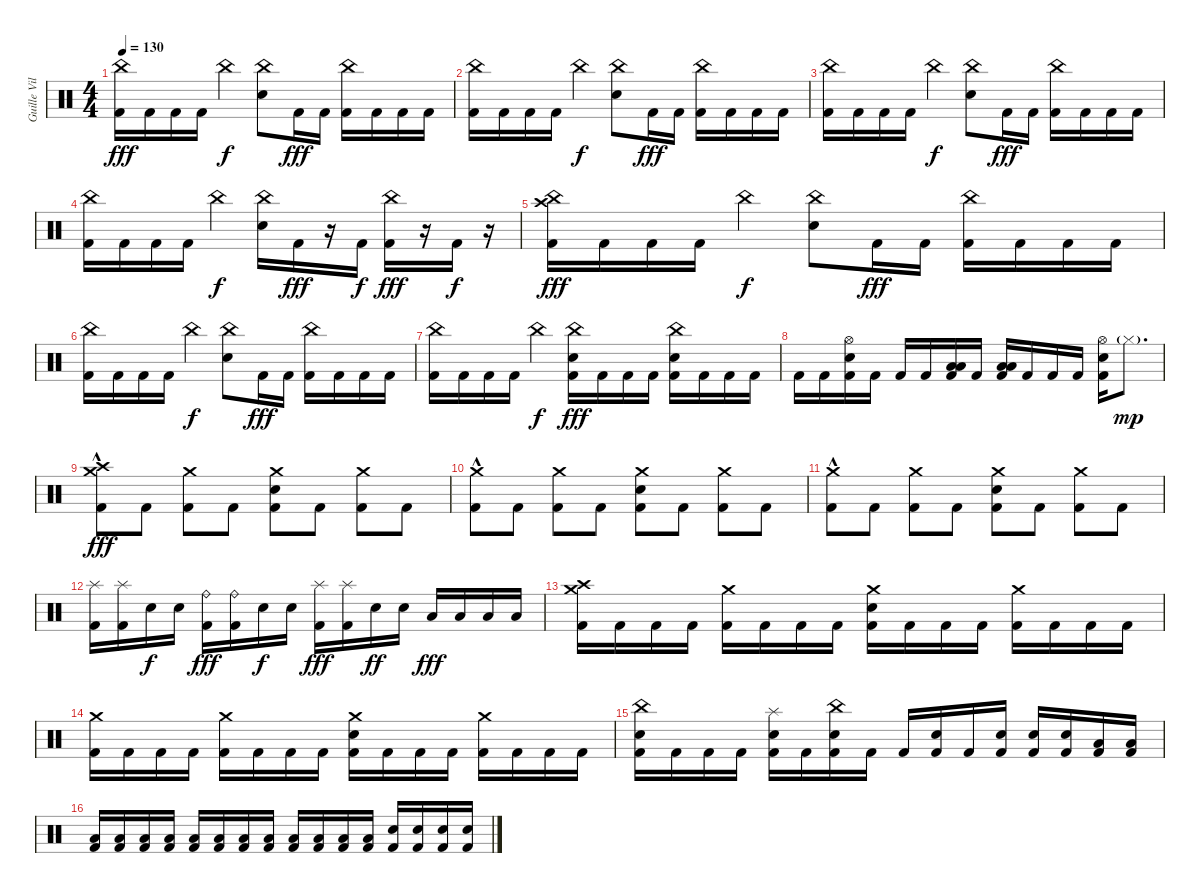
\track ("Guille Vila" "Guille Vil") {instrument percussion}
\staff {score}
\articulation defaults
\ts (4 4)
\tempo 130
\clef neutral
\ks c
("China (hit)" "Kick (hit) 2").16{dy fff} "Kick (hit) 2".16 "Kick (hit) 2".16 "Kick (hit) 2".16 "China (hit)".4{dy f} ("China (hit)" "Snare (hit) 2").8 "Kick (hit) 2".16{dy fff} "Kick (hit) 2".16 ("China (hit)" "Kick (hit) 2").16 "Kick (hit) 2".16 "Kick (hit) 2".16 "Kick (hit) 2".16 |
("China (hit)" "Kick (hit) 2").16 "Kick (hit) 2".16 "Kick (hit) 2".16 "Kick (hit) 2".16 "China (hit)".4{dy f} ("China (hit)" "Snare (hit) 2").8 "Kick (hit) 2".16{dy fff} "Kick (hit) 2".16 ("China (hit)" "Kick (hit) 2").16 "Kick (hit) 2".16 "Kick (hit) 2".16 "Kick (hit) 2".16 |
("China (hit)" "Kick (hit) 2").16 "Kick (hit) 2".16 "Kick (hit) 2".16 "Kick (hit) 2".16 "China (hit)".4{dy f} ("China (hit)" "Snare (hit) 2").8 "Kick (hit) 2".16{dy fff} "Kick (hit) 2".16 ("China (hit)" "Kick (hit) 2").16 "Kick (hit) 2".16 "Kick (hit) 2".16 "Kick (hit) 2".16 |
("China (hit)" "Kick (hit) 2").16 "Kick (hit) 2".16 "Kick (hit) 2".16 "Kick (hit) 2".16 "China (hit)".4{dy f} ("China (hit)" "Snare (hit) 2").16 "Kick (hit) 2".16{dy fff} r.16 "Kick (hit) 2".16{dy f} ("China (hit)" "Kick (hit) 2").16{dy fff} r.16 "Kick (hit) 2".16{dy f} r.16 |
("China (hit)" "Crash high (hit)" "Kick (hit) 2").16{dy fff} "Kick (hit) 2".16 "Kick (hit) 2".16 "Kick (hit) 2".16 "China (hit)".4{dy f} ("China (hit)" "Snare (hit) 2").8 "Kick (hit) 2".16{dy fff} "Kick (hit) 2".16 ("China (hit)" "Kick (hit) 2").16 "Kick (hit) 2".16 "Kick (hit) 2".16 "Kick (hit) 2".16 |
("China (hit)" "Kick (hit) 2").16 "Kick (hit) 2".16 "Kick (hit) 2".16 "Kick (hit) 2".16 "China (hit)".4{dy f} ("China (hit)" "Snare (hit) 2").8 "Kick (hit) 2".16{dy fff} "Kick (hit) 2".16 ("China (hit)" "Kick (hit) 2").16 "Kick (hit) 2".16 "Kick (hit) 2".16 "Kick (hit) 2".16 |
("China (hit)" "Kick (hit) 2").16 "Kick (hit) 2".16 "Kick (hit) 2".16 "Kick (hit) 2".16 "China (hit)".4{dy f} ("China (hit)" "Snare (hit) 2" "Kick (hit) 2").16{dy fff} "Kick (hit) 2".16 "Kick (hit) 2".16 "Kick (hit) 2".16 ("China (hit)" "Snare (hit) 2" "Kick (hit) 2").16 "Kick (hit) 2".16 "Kick (hit) 2".16 "Kick (hit) 2".16 |
"Kick (hit) 2".16 "Kick (hit) 2".16 ("Hi-Hat (open)" "Snare (hit) 2" "Kick (hit) 2").16 "Kick (hit) 2".16 "Kick (hit) 2".16 "Kick (hit) 2".16 ("Low Tom (hit)" "Low Floor Tom (hit)" "Kick (hit) 2").16 "Kick (hit) 2".16 ("Low Tom (hit)" "Low Floor Tom (hit)" "Kick (hit) 2").16 "Kick (hit) 2".16 "Kick (hit) 2".16 "Kick (hit) 2".16 ("Hi-Hat (open)" "Electric Snare (hit)" "Kick (hit) 2").16 "Hi-Hat (closed)"{g}.8{d dy mp} |
("Crash medium (hit)" "Crash high (hit)" "Kick (hit) 2"{hac}).8{dy fff volume 16} "Kick (hit) 2".8 ("Crash medium (hit)" "Kick (hit) 2").8 "Kick (hit) 2".8 ("Crash medium (hit)" "Snare (hit) 2" "Kick (hit) 2").8 "Kick (hit) 2".8 ("Crash medium (hit)" "Kick (hit) 2").8 "Kick (hit) 2".8 |
("Crash medium (hit)" "Kick (hit) 2"{hac}).8 "Kick (hit) 2".8 ("Crash medium (hit)" "Kick (hit) 2").8 "Kick (hit) 2".8 ("Crash medium (hit)" "Snare (hit) 2" "Kick (hit) 2").8 "Kick (hit) 2".8 ("Crash medium (hit)" "Kick (hit) 2").8 "Kick (hit) 2".8 |
("Crash medium (hit)" "Kick (hit) 2"{hac}).8 "Kick (hit) 2".8 ("Crash medium (hit)" "Kick (hit) 2").8 "Kick (hit) 2".8 ("Crash medium (hit)" "Snare (hit) 2" "Kick (hit) 2").8 "Kick (hit) 2".8 ("Crash medium (hit)" "Kick (hit) 2").8 "Kick (hit) 2".8 |
("Splash (hit)" "Kick (hit) 2").16 ("Splash (hit)" "Kick (hit) 2").16 "Snare (hit) 2".16{dy f} "Snare (hit) 2".16 ("Ride (bell)" "Kick (hit) 2").16{dy fff} ("Ride (bell)" "Kick (hit) 2").16 "Snare (hit) 2".16{dy f} "Snare (hit) 2".16 ("Splash (hit)" "Kick (hit) 2").16{dy fff} ("Splash (hit)" "Kick (hit) 2").16 "Snare (hit) 2".16{dy ff} "Snare (hit) 2".16 "Low Tom (hit)".16{dy fff} "Low Tom (hit)".16 "Low Floor Tom (hit)".16 "Low Floor Tom (hit)".16 |
("Crash high (hit)" "Crash medium (hit)" "Kick (hit) 2").16 "Kick (hit) 2".16 "Kick (hit) 2".16 "Kick (hit) 2".16 ("Crash medium (hit)" "Kick (hit) 2").16 "Kick (hit) 2".16 "Kick (hit) 2".16 "Kick (hit) 2".16 ("Crash medium (hit)" "Snare (hit) 2" "Kick (hit) 2").16 "Kick (hit) 2".16 "Kick (hit) 2".16 "Kick (hit) 2".16 ("Crash medium (hit)" "Kick (hit) 2").16 "Kick (hit) 2".16 "Kick (hit) 2".16 "Kick (hit) 2".16 |
("Crash medium (hit)" "Kick (hit) 2").16 "Kick (hit) 2".16 "Kick (hit) 2".16 "Kick (hit) 2".16 ("Crash medium (hit)" "Kick (hit) 2").16 "Kick (hit) 2".16 "Kick (hit) 2".16 "Kick (hit) 2".16 ("Crash medium (hit)" "Snare (hit) 2" "Kick (hit) 2").16 "Kick (hit) 2".16 "Kick (hit) 2".16 "Kick (hit) 2".16 ("Crash medium (hit)" "Kick (hit) 2").16 "Kick (hit) 2".16 "Kick (hit) 2".16 "Kick (hit) 2".16 |
("China (hit)" "Snare (hit) 2" "Kick (hit) 2").16 "Kick (hit) 2".16 "Kick (hit) 2".16 "Kick (hit) 2".16 ("Splash (hit)" "Snare (hit) 2" "Kick (hit) 2").16 "Kick (hit) 2".16 ("China (hit)" "Snare (hit) 2" "Kick (hit) 2").16 "Kick (hit) 2".16 "Kick (hit) 2".16 ("Snare (hit) 2" "Kick (hit) 2").16 "Kick (hit) 2".16 ("Snare (hit) 2" "Kick (hit) 2").16 ("Snare (hit) 2" "Kick (hit) 2").16 ("Snare (hit) 2" "Kick (hit) 2").16 ("Low Tom (hit)" "Kick (hit) 2").16 ("Low Tom (hit)" "Kick (hit) 2").16 |
("Low Tom (hit)" "Kick (hit) 2").16 ("Low Tom (hit)" "Kick (hit) 2").16 ("Low Tom (hit)" "Kick (hit) 2").16 ("Low Tom (hit)" "Kick (hit) 2").16 ("Low Tom (hit)" "Kick (hit) 2").16 ("Low Tom (hit)" "Kick (hit) 2").16 ("Low Floor Tom (hit)" "Kick (hit) 2").16 ("Low Floor Tom (hit)" "Kick (hit) 2").16 ("Low Floor Tom (hit)" "Kick (hit) 2").16 ("Low Floor Tom (hit)" "Kick (hit) 2").16 ("Low Floor Tom (hit)" "Kick (hit) 2").16 ("Low Floor Tom (hit)" "Kick (hit) 2").16 ("Snare (hit) 2" "Kick (hit) 2").16 ("Snare (hit) 2" "Kick (hit) 2").16 ("Snare (hit) 2" "Kick (hit) 2").16 ("Snare (hit) 2" "Kick (hit) 2").16
